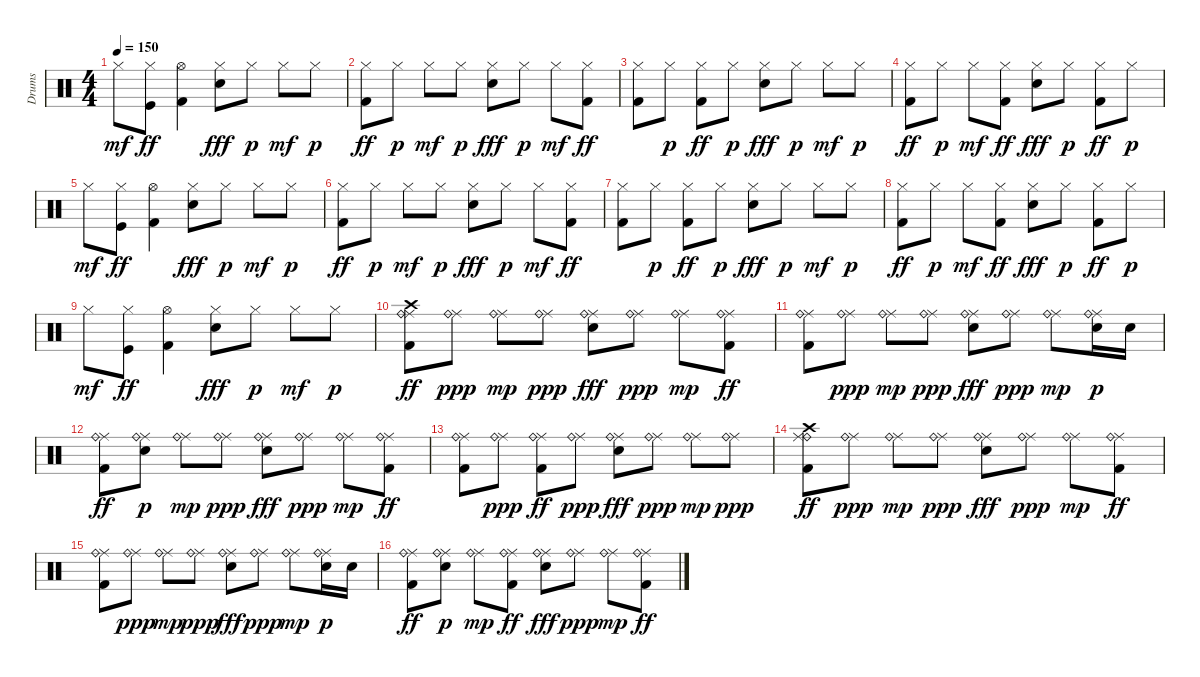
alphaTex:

\track ("Drums" "Drums") {instrument percussion}
\staff {score}
\articulation defaults
\ts (4 4)
\tempo 150
\clef neutral
\ks c "Hi-Hat (closed)".8{dy mf}
("Hi-Hat (closed)" "Kick (hit)").8{dy ff} ("Hi-Hat (open)" "Kick (hit) 2").4 ("Hi-Hat (closed)" "Electric Snare (hit)").8{dy fff} "Hi-Hat (closed)".8{dy p} "Hi-Hat (closed)".8{dy mf} "Hi-Hat (closed)".8{dy p} |
("Hi-Hat (closed)" "Kick (hit) 2").8{dy ff} "Hi-Hat (closed)".8{dy p} "Hi-Hat (closed)".8{dy mf} "Hi-Hat (closed)".8{dy p} ("Hi-Hat (closed)" "Electric Snare (hit)").8{dy fff} "Hi-Hat (closed)".8{dy p} "Hi-Hat (closed)".8{dy mf} ("Hi-Hat (closed)" "Kick (hit) 2").8{dy ff} |
("Hi-Hat (closed)" "Kick (hit) 2").8 "Hi-Hat (closed)".8{dy p} ("Hi-Hat (closed)" "Kick (hit) 2").8{dy ff} "Hi-Hat (closed)".8{dy p} ("Hi-Hat (closed)" "Electric Snare (hit)").8{dy fff} "Hi-Hat (closed)".8{dy p} "Hi-Hat (closed)".8{dy mf} "Hi-Hat (closed)".8{dy p} |
("Hi-Hat (closed)" "Kick (hit) 2").8{dy ff} "Hi-Hat (closed)".8{dy p} "Hi-Hat (closed)".8{dy mf} ("Hi-Hat (closed)" "Kick (hit) 2").8{dy ff} ("Hi-Hat (closed)" "Electric Snare (hit)").8{dy fff} "Hi-Hat (closed)".8{dy p} ("Hi-Hat (closed)" "Kick (hit) 2").8{dy ff} "Hi-Hat (closed)".8{dy p} |
"Hi-Hat (closed)".8{dy mf} ("Hi-Hat (closed)" "Kick (hit)").8{dy ff} ("Hi-Hat (open)" "Kick (hit) 2").4 ("Hi-Hat (closed)" "Electric Snare (hit)").8{dy fff} "Hi-Hat (closed)".8{dy p} "Hi-Hat (closed)".8{dy mf} "Hi-Hat (closed)".8{dy p} |
("Hi-Hat (closed)" "Kick (hit) 2").8{dy ff} "Hi-Hat (closed)".8{dy p} "Hi-Hat (closed)".8{dy mf} "Hi-Hat (closed)".8{dy p} ("Hi-Hat (closed)" "Electric Snare (hit)").8{dy fff} "Hi-Hat (closed)".8{dy p} "Hi-Hat (closed)".8{dy mf} ("Hi-Hat (closed)" "Kick (hit) 2").8{dy ff} |
("Hi-Hat (closed)" "Kick (hit) 2").8 "Hi-Hat (closed)".8{dy p} ("Hi-Hat (closed)" "Kick (hit) 2").8{dy ff} "Hi-Hat (closed)".8{dy p} ("Hi-Hat (closed)" "Electric Snare (hit)").8{dy fff} "Hi-Hat (closed)".8{dy p} "Hi-Hat (closed)".8{dy mf} "Hi-Hat (closed)".8{dy p} |
("Hi-Hat (closed)" "Kick (hit) 2").8{dy ff} "Hi-Hat (closed)".8{dy p} "Hi-Hat (closed)".8{dy mf} ("Hi-Hat (closed)" "Kick (hit) 2").8{dy ff} ("Hi-Hat (closed)" "Electric Snare (hit)").8{dy fff} "Hi-Hat (closed)".8{dy p} ("Hi-Hat (closed)" "Kick (hit) 2").8{dy ff} "Hi-Hat (closed)".8{dy p} |
"Hi-Hat (closed)".8{dy mf} ("Hi-Hat (closed)" "Kick (hit)").8{dy ff} ("Hi-Hat (open)" "Kick (hit) 2").4 ("Hi-Hat (closed)" "Electric Snare (hit)").8{dy fff} "Hi-Hat (closed)".8{dy p} "Hi-Hat (closed)".8{dy mf} "Hi-Hat (closed)".8{dy p} |
("Crash high (hit)" "Ride (middle)" "Ride (bell)" "Kick (hit) 2").8{dy ff} ("Ride (middle)" "Ride (bell)").8{dy ppp} ("Ride (middle)" "Ride (bell)").8{dy mp} ("Ride (middle)" "Ride (bell)").8{dy ppp} ("Ride (middle)" "Ride (bell)" "Electric Snare (hit)").8{dy fff} ("Ride (middle)" "Ride (bell)").8{dy ppp} ("Ride (middle)" "Ride (bell)").8{dy mp} ("Ride (middle)" "Ride (bell)" "Kick (hit) 2").8{dy ff} |
("Ride (middle)" "Ride (bell)" "Kick (hit) 2").8 ("Ride (middle)" "Ride (bell)").8{dy ppp} ("Ride (middle)" "Ride (bell)").8{dy mp} ("Ride (middle)" "Ride (bell)").8{dy ppp} ("Ride (middle)" "Ride (bell)" "Electric Snare (hit)").8{dy fff} ("Ride (middle)" "Ride (bell)").8{dy ppp} ("Ride (middle)" "Ride (bell)").8{dy mp} ("Ride (middle)" "Ride (bell)" "Electric Snare (hit)").16{dy p} "Electric Snare (hit)".16 |
("Ride (middle)" "Ride (bell)" "Kick (hit) 2").8{dy ff} ("Ride (middle)" "Ride (bell)" "Electric Snare (hit)").8{dy p} ("Ride (middle)" "Ride (bell)").8{dy mp} ("Ride (middle)" "Ride (bell)").8{dy ppp} ("Ride (middle)" "Ride (bell)" "Electric Snare (hit)").8{dy fff} ("Ride (middle)" "Ride (bell)").8{dy ppp} ("Ride (middle)" "Ride (bell)").8{dy mp} ("Ride (middle)" "Ride (bell)" "Kick (hit) 2").8{dy ff} |
("Ride (middle)" "Ride (bell)" "Kick (hit) 2").8 ("Ride (middle)" "Ride (bell)").8{dy ppp} ("Ride (middle)" "Ride (bell)" "Kick (hit) 2").8{dy ff} ("Ride (middle)" "Ride (bell)").8{dy ppp} ("Ride (middle)" "Ride (bell)" "Electric Snare (hit)").8{dy fff} ("Ride (middle)" "Ride (bell)").8{dy ppp} ("Ride (middle)" "Ride (bell)").8{dy mp} ("Ride (middle)" "Ride (bell)").8{dy ppp} |
("Ride (bell)" "Ride (middle)" "Crash high (hit)" "Kick (hit) 2").8{dy ff} ("Ride (middle)" "Ride (bell)").8{dy ppp} ("Ride (middle)" "Ride (bell)").8{dy mp} ("Ride (middle)" "Ride (bell)").8{dy ppp} ("Ride (middle)" "Ride (bell)" "Electric Snare (hit)").8{dy fff} ("Ride (middle)" "Ride (bell)").8{dy ppp} ("Ride (middle)" "Ride (bell)").8{dy mp} ("Ride (middle)" "Ride (bell)" "Kick (hit) 2").8{dy ff} |
("Ride (middle)" "Ride (bell)" "Kick (hit) 2").8 ("Ride (middle)" "Ride (bell)").8{dy ppp} ("Ride (middle)" "Ride (bell)").8{dy mp} ("Ride (middle)" "Ride (bell)").8{dy ppp} ("Ride (middle)" "Ride (bell)" "Electric Snare (hit)").8{dy fff} ("Ride (middle)" "Ride (bell)").8{dy ppp} ("Ride (middle)" "Ride (bell)").8{dy mp} ("Ride (middle)" "Ride (bell)" "Electric Snare (hit)").16{dy p} "Electric Snare (hit)".16 |
("Ride (middle)" "Ride (bell)" "Kick (hit) 2").8{dy ff} ("Ride (middle)" "Ride (bell)" "Electric Snare (hit)").8{dy p} ("Ride (middle)" "Ride (bell)").8{dy mp} ("Ride (middle)" "Ride (bell)" "Kick (hit) 2").8{dy ff} ("Ride (middle)" "Ride (bell)" "Electric Snare (hit)").8{dy fff} ("Ride (middle)" "Ride (bell)").8{dy ppp} ("Ride (middle)" "Ride (bell)").8{dy mp} ("Ride (middle)" "Ride (bell)" "Kick (hit) 2").8{dy ff}
